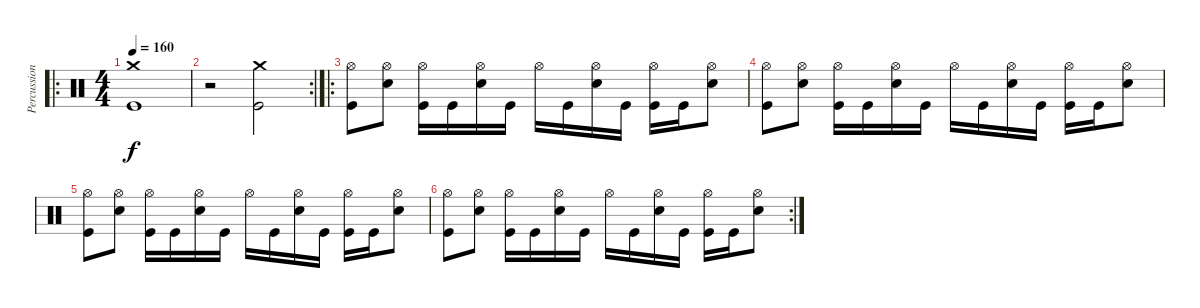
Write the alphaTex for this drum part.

\track ("Percussion" "Percussion") {instrument percussion}
\staff {score}
\articulation defaults
\ro
\ts (4 4)
\tempo 160
\clef neutral
\ks c
("Crash medium (hit)" "Kick (hit)").1{dy f} |
\rc 2
r.2 ("Crash medium (hit)" "Kick (hit)").2 |
\ro
("Hi-Hat (open)" "Kick (hit)").8 ("Hi-Hat (open)" "Snare (hit) 2").8 ("Hi-Hat (open)" "Kick (hit)").16 "Kick (hit)".16 ("Hi-Hat (open)" "Snare (hit) 2").16 "Kick (hit)".16 "Hi-Hat (open)".16 "Kick (hit)".16 ("Hi-Hat (open)" "Snare (hit) 2").16 "Kick (hit)".16 ("Hi-Hat (open)" "Kick (hit)").16 "Kick (hit)".16 ("Hi-Hat (open)" "Snare (hit) 2").8 |
("Hi-Hat (open)" "Kick (hit)").8 ("Hi-Hat (open)" "Snare (hit) 2").8 ("Hi-Hat (open)" "Kick (hit)").16 "Kick (hit)".16 ("Hi-Hat (open)" "Snare (hit) 2").16 "Kick (hit)".16 "Hi-Hat (open)".16 "Kick (hit)".16 ("Hi-Hat (open)" "Snare (hit) 2").16 "Kick (hit)".16 ("Hi-Hat (open)" "Kick (hit)").16 "Kick (hit)".16 ("Hi-Hat (open)" "Snare (hit) 2").8 |
("Hi-Hat (open)" "Kick (hit)").8 ("Hi-Hat (open)" "Snare (hit) 2").8 ("Hi-Hat (open)" "Kick (hit)").16 "Kick (hit)".16 ("Hi-Hat (open)" "Snare (hit) 2").16 "Kick (hit)".16 "Hi-Hat (open)".16 "Kick (hit)".16 ("Hi-Hat (open)" "Snare (hit) 2").16 "Kick (hit)".16 ("Hi-Hat (open)" "Kick (hit)").16 "Kick (hit)".16 ("Hi-Hat (open)" "Snare (hit) 2").8 |
\rc 2
("Hi-Hat (open)" "Kick (hit)").8 ("Hi-Hat (open)" "Snare (hit) 2").8 ("Hi-Hat (open)" "Kick (hit)").16 "Kick (hit)".16 ("Hi-Hat (open)" "Snare (hit) 2").16 "Kick (hit)".16 "Hi-Hat (open)".16 "Kick (hit)".16 ("Hi-Hat (open)" "Snare (hit) 2").16 "Kick (hit)".16 ("Hi-Hat (open)" "Kick (hit)").16 "Kick (hit)".16 ("Hi-Hat (open)" "Snare (hit) 2").8
